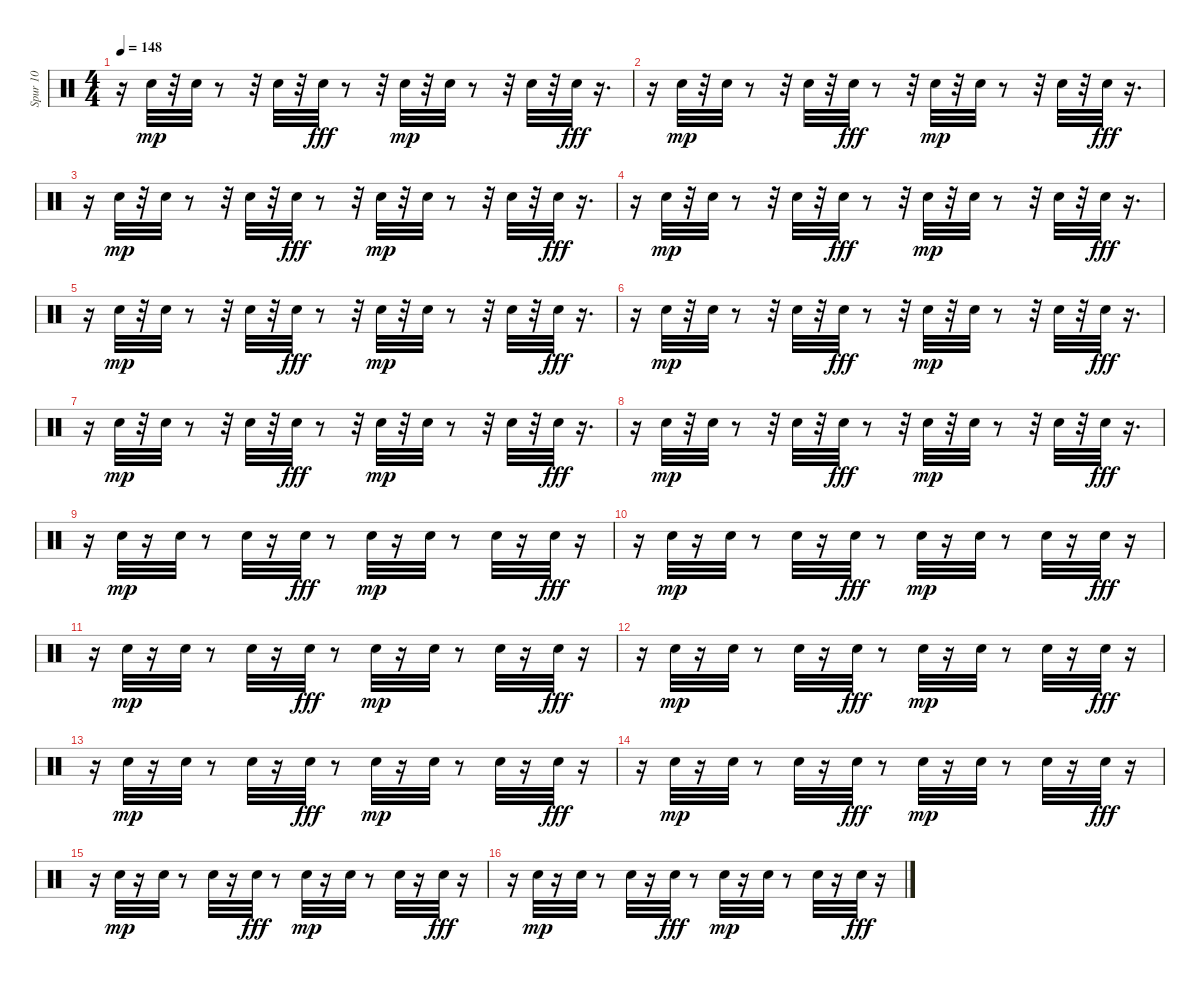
\track ("Spur 10" "Spur 10") {instrument percussion}
\staff {score}
\articulation defaults
\ts (4 4)
\tempo 148
\clef neutral
\ks c
r.16{dy fff} "Snare (hit) 2".32{dy mp} r.32 "Snare (hit) 2".32 r.8 r.32 "Snare (hit) 2".32 r.32 "Snare (hit) 2".32{dy fff} r.8 r.32 "Snare (hit) 2".32{dy mp} r.32 "Snare (hit) 2".32 r.8 r.32 "Snare (hit) 2".32 r.32 "Snare (hit) 2".32{dy fff} r.16{d} |
r.16 "Snare (hit) 2".32{dy mp} r.32 "Snare (hit) 2".32 r.8 r.32 "Snare (hit) 2".32 r.32 "Snare (hit) 2".32{dy fff} r.8 r.32 "Snare (hit) 2".32{dy mp} r.32 "Snare (hit) 2".32 r.8 r.32 "Snare (hit) 2".32 r.32 "Snare (hit) 2".32{dy fff} r.16{d} |
r.16 "Snare (hit) 2".32{dy mp} r.32 "Snare (hit) 2".32 r.8 r.32 "Snare (hit) 2".32 r.32 "Snare (hit) 2".32{dy fff} r.8 r.32 "Snare (hit) 2".32{dy mp} r.32 "Snare (hit) 2".32 r.8 r.32 "Snare (hit) 2".32 r.32 "Snare (hit) 2".32{dy fff} r.16{d} |
r.16 "Snare (hit) 2".32{dy mp} r.32 "Snare (hit) 2".32 r.8 r.32 "Snare (hit) 2".32 r.32 "Snare (hit) 2".32{dy fff} r.8 r.32 "Snare (hit) 2".32{dy mp} r.32 "Snare (hit) 2".32 r.8 r.32 "Snare (hit) 2".32 r.32 "Snare (hit) 2".32{dy fff} r.16{d} |
r.16 "Snare (hit) 2".32{dy mp} r.32 "Snare (hit) 2".32 r.8 r.32 "Snare (hit) 2".32 r.32 "Snare (hit) 2".32{dy fff} r.8 r.32 "Snare (hit) 2".32{dy mp} r.32 "Snare (hit) 2".32 r.8 r.32 "Snare (hit) 2".32 r.32 "Snare (hit) 2".32{dy fff} r.16{d} |
r.16 "Snare (hit) 2".32{dy mp} r.32 "Snare (hit) 2".32 r.8 r.32 "Snare (hit) 2".32 r.32 "Snare (hit) 2".32{dy fff} r.8 r.32 "Snare (hit) 2".32{dy mp} r.32 "Snare (hit) 2".32 r.8 r.32 "Snare (hit) 2".32 r.32 "Snare (hit) 2".32{dy fff} r.16{d} |
r.16 "Snare (hit) 2".32{dy mp} r.32 "Snare (hit) 2".32 r.8 r.32 "Snare (hit) 2".32 r.32 "Snare (hit) 2".32{dy fff} r.8 r.32 "Snare (hit) 2".32{dy mp} r.32 "Snare (hit) 2".32 r.8 r.32 "Snare (hit) 2".32 r.32 "Snare (hit) 2".32{dy fff} r.16{d} |
r.16 "Snare (hit) 2".32{dy mp} r.32 "Snare (hit) 2".32 r.8 r.32 "Snare (hit) 2".32 r.32 "Snare (hit) 2".32{dy fff} r.8 r.32 "Snare (hit) 2".32{dy mp} r.32 "Snare (hit) 2".32 r.8 r.32 "Snare (hit) 2".32 r.32 "Snare (hit) 2".32{dy fff} r.16{d} |
r.16 "Snare (hit) 2".32{dy mp} r.16 "Snare (hit) 2".32 r.8 "Snare (hit) 2".32 r.16 "Snare (hit) 2".32{dy fff} r.8 "Snare (hit) 2".32{dy mp} r.16 "Snare (hit) 2".32 r.8 "Snare (hit) 2".32 r.16 "Snare (hit) 2".32{dy fff} r.16 |
r.16 "Snare (hit) 2".32{dy mp} r.16 "Snare (hit) 2".32 r.8 "Snare (hit) 2".32 r.16 "Snare (hit) 2".32{dy fff} r.8 "Snare (hit) 2".32{dy mp} r.16 "Snare (hit) 2".32 r.8 "Snare (hit) 2".32 r.16 "Snare (hit) 2".32{dy fff} r.16 |
r.16 "Snare (hit) 2".32{dy mp} r.16 "Snare (hit) 2".32 r.8 "Snare (hit) 2".32 r.16 "Snare (hit) 2".32{dy fff} r.8 "Snare (hit) 2".32{dy mp} r.16 "Snare (hit) 2".32 r.8 "Snare (hit) 2".32 r.16 "Snare (hit) 2".32{dy fff} r.16 |
r.16 "Snare (hit) 2".32{dy mp} r.16 "Snare (hit) 2".32 r.8 "Snare (hit) 2".32 r.16 "Snare (hit) 2".32{dy fff} r.8 "Snare (hit) 2".32{dy mp} r.16 "Snare (hit) 2".32 r.8 "Snare (hit) 2".32 r.16 "Snare (hit) 2".32{dy fff} r.16 |
r.16 "Snare (hit) 2".32{dy mp} r.16 "Snare (hit) 2".32{volume 16} r.8 "Snare (hit) 2".32{volume 16} r.16 "Snare (hit) 2".32{dy fff volume 16} r.8 "Snare (hit) 2".32{dy mp volume 15} r.16 "Snare (hit) 2".32 r.8 "Snare (hit) 2".32{volume 15} r.16 "Snare (hit) 2".32{dy fff volume 15} r.16 |
r.16 "Snare (hit) 2".32{dy mp volume 14} r.16 "Snare (hit) 2".32{volume 14} r.8 "Snare (hit) 2".32{volume 14} r.16 "Snare (hit) 2".32{dy fff volume 14} r.8 "Snare (hit) 2".32{dy mp volume 13} r.16 "Snare (hit) 2".32{volume 13} r.8 "Snare (hit) 2".32{volume 13} r.16 "Snare (hit) 2".32{dy fff volume 13} r.16 |
r.16 "Snare (hit) 2".32{dy mp volume 12} r.16 "Snare (hit) 2".32{volume 12} r.8 "Snare (hit) 2".32{volume 12} r.16 "Snare (hit) 2".32{dy fff} r.8 "Snare (hit) 2".32{dy mp volume 12} r.16 "Snare (hit) 2".32{volume 12} r.8 "Snare (hit) 2".32{volume 11} r.16 "Snare (hit) 2".32{dy fff} r.16 |
r.16 "Snare (hit) 2".32{dy mp volume 11} r.16 "Snare (hit) 2".32{volume 11} r.8 "Snare (hit) 2".32{volume 10} r.16 "Snare (hit) 2".32{dy fff volume 10} r.8 "Snare (hit) 2".32{dy mp volume 10} r.16 "Snare (hit) 2".32{volume 10} r.8 "Snare (hit) 2".32{volume 9} r.16 "Snare (hit) 2".32{dy fff volume 9} r.16
